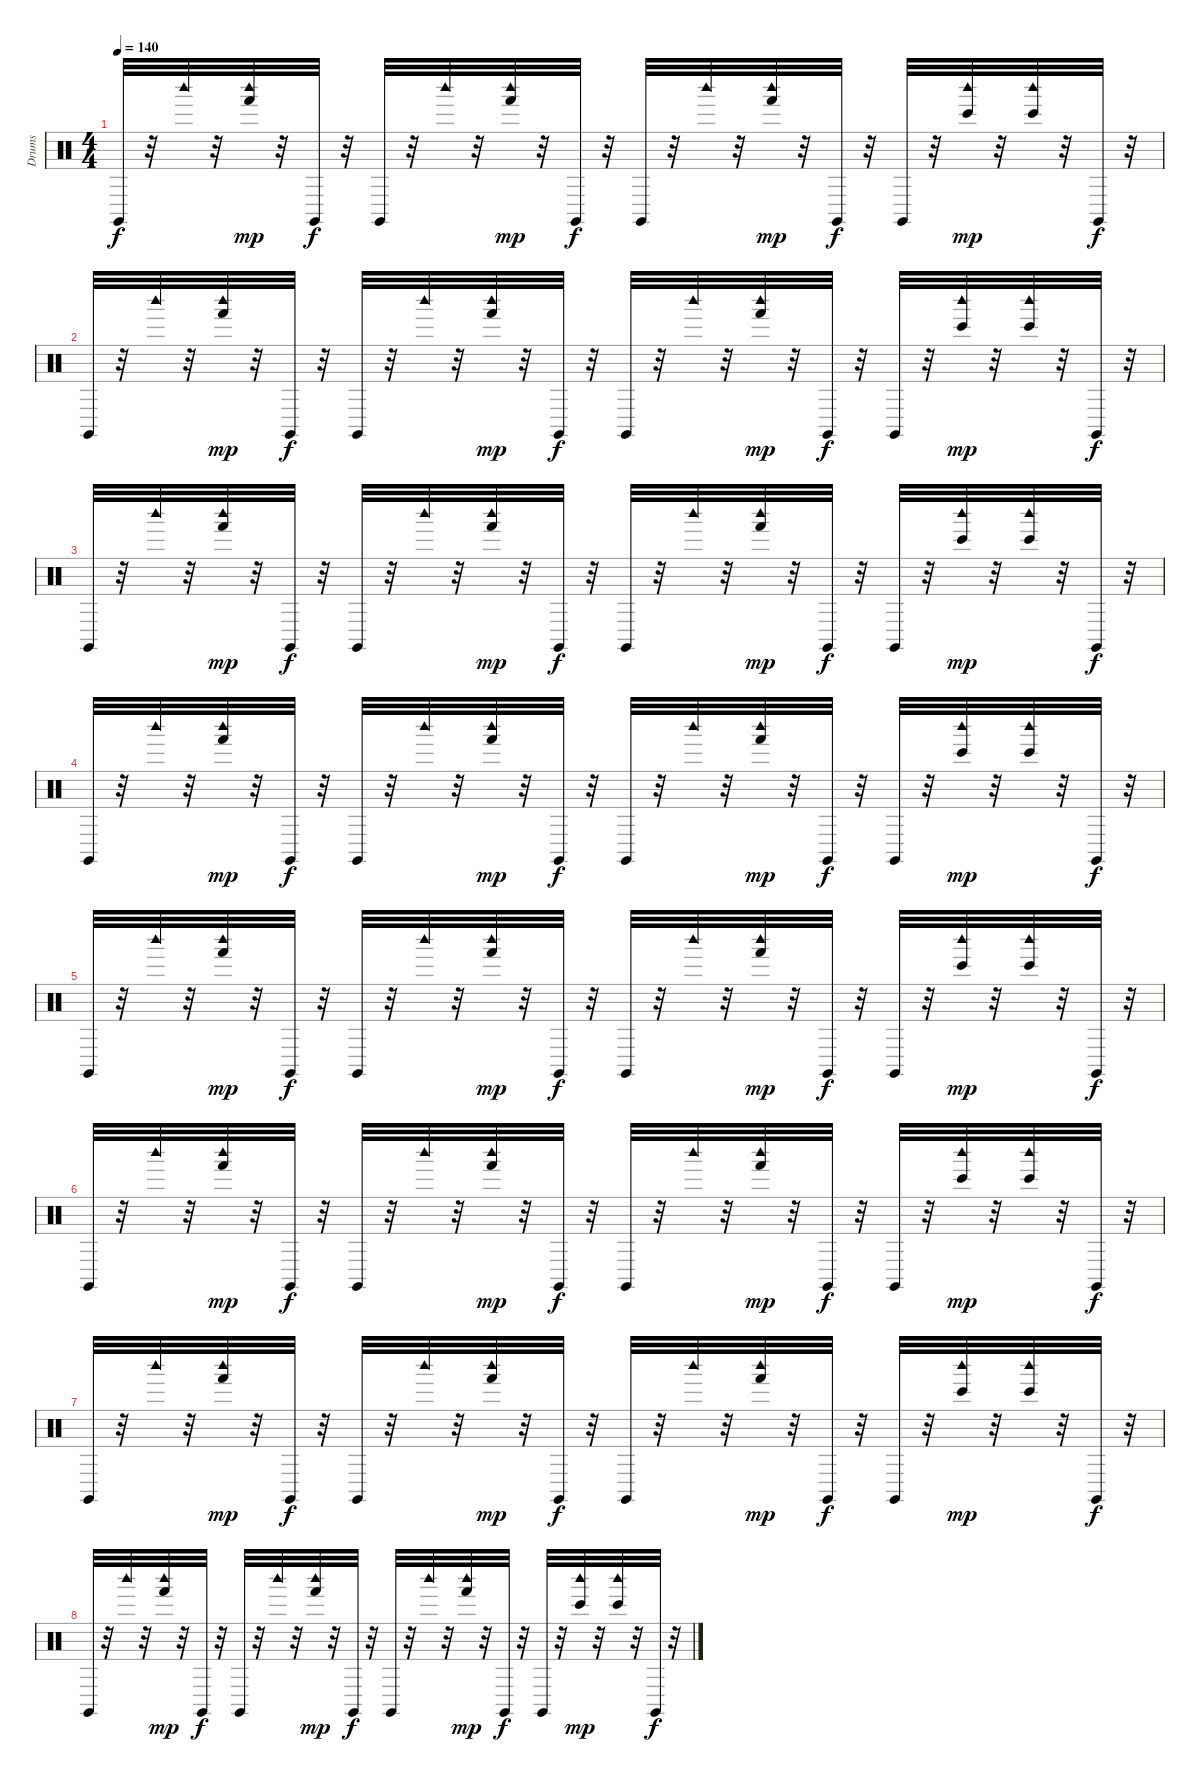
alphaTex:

\track ("Drums" "Drums") {instrument percussion}
\staff {score}
\articulation defaults
\ts (4 4)
\tempo 140
\clef neutral
\ks c "Claves (hit)".32{dy f}
r.32 "Woodblock high (hit)".32 r.32 ("Hand (hit)" "Woodblock high (hit)").32{dy mp} r.32 "Claves (hit)".32{dy f} r.32 "Claves (hit)".32 r.32 "Woodblock high (hit)".32 r.32 ("Hand (hit)" "Woodblock high (hit)").32{dy mp} r.32 "Claves (hit)".32{dy f} r.32 "Claves (hit)".32 r.32 "Woodblock high (hit)".32 r.32 ("Hand (hit)" "Woodblock high (hit)").32{dy mp} r.32 "Claves (hit)".32{dy f} r.32 "Claves (hit)".32 r.32 ("Woodblock high (hit)" "Bongo High (hit)").32{dy mp} r.32 ("Bongo High (hit)" "Woodblock high (hit)").32 r.32 "Claves (hit)".32{dy f} r.32 |
"Claves (hit)".32 r.32 "Woodblock high (hit)".32 r.32 ("Hand (hit)" "Woodblock high (hit)").32{dy mp} r.32 "Claves (hit)".32{dy f} r.32 "Claves (hit)".32 r.32 "Woodblock high (hit)".32 r.32 ("Hand (hit)" "Woodblock high (hit)").32{dy mp} r.32 "Claves (hit)".32{dy f} r.32 "Claves (hit)".32 r.32 "Woodblock high (hit)".32 r.32 ("Woodblock high (hit)" "Hand (hit)").32{dy mp} r.32 "Claves (hit)".32{dy f} r.32 "Claves (hit)".32 r.32 ("Woodblock high (hit)" "Bongo High (hit)").32{dy mp} r.32 ("Woodblock high (hit)" "Bongo High (hit)").32 r.32 "Claves (hit)".32{dy f} r.32 |
"Claves (hit)".32 r.32 "Woodblock high (hit)".32 r.32 ("Hand (hit)" "Woodblock high (hit)").32{dy mp} r.32 "Claves (hit)".32{dy f} r.32 "Claves (hit)".32 r.32 "Woodblock high (hit)".32 r.32 ("Hand (hit)" "Woodblock high (hit)").32{dy mp} r.32 "Claves (hit)".32{dy f} r.32 "Claves (hit)".32 r.32 "Woodblock high (hit)".32 r.32 ("Hand (hit)" "Woodblock high (hit)").32{dy mp} r.32 "Claves (hit)".32{dy f} r.32 "Claves (hit)".32 r.32 ("Woodblock high (hit)" "Bongo High (hit)").32{dy mp} r.32 ("Bongo High (hit)" "Woodblock high (hit)").32 r.32 "Claves (hit)".32{dy f} r.32 |
"Claves (hit)".32 r.32 "Woodblock high (hit)".32 r.32 ("Hand (hit)" "Woodblock high (hit)").32{dy mp} r.32 "Claves (hit)".32{dy f} r.32 "Claves (hit)".32 r.32 "Woodblock high (hit)".32 r.32 ("Hand (hit)" "Woodblock high (hit)").32{dy mp} r.32 "Claves (hit)".32{dy f} r.32 "Claves (hit)".32 r.32 "Woodblock high (hit)".32 r.32 ("Woodblock high (hit)" "Hand (hit)").32{dy mp} r.32 "Claves (hit)".32{dy f} r.32 "Claves (hit)".32 r.32 ("Woodblock high (hit)" "Bongo High (hit)").32{dy mp} r.32 ("Woodblock high (hit)" "Bongo High (hit)").32 r.32 "Claves (hit)".32{dy f} r.32 |
"Claves (hit)".32 r.32 "Woodblock high (hit)".32 r.32 ("Hand (hit)" "Woodblock high (hit)").32{dy mp} r.32 "Claves (hit)".32{dy f} r.32 "Claves (hit)".32 r.32 "Woodblock high (hit)".32 r.32 ("Hand (hit)" "Woodblock high (hit)").32{dy mp} r.32 "Claves (hit)".32{dy f} r.32 "Claves (hit)".32 r.32 "Woodblock high (hit)".32 r.32 ("Hand (hit)" "Woodblock high (hit)").32{dy mp} r.32 "Claves (hit)".32{dy f} r.32 "Claves (hit)".32 r.32 ("Woodblock high (hit)" "Bongo High (hit)").32{dy mp} r.32 ("Bongo High (hit)" "Woodblock high (hit)").32 r.32 "Claves (hit)".32{dy f} r.32 |
"Claves (hit)".32 r.32 "Woodblock high (hit)".32 r.32 ("Hand (hit)" "Woodblock high (hit)").32{dy mp} r.32 "Claves (hit)".32{dy f} r.32 "Claves (hit)".32 r.32 "Woodblock high (hit)".32 r.32 ("Hand (hit)" "Woodblock high (hit)").32{dy mp} r.32 "Claves (hit)".32{dy f} r.32 "Claves (hit)".32 r.32 "Woodblock high (hit)".32 r.32 ("Woodblock high (hit)" "Hand (hit)").32{dy mp} r.32 "Claves (hit)".32{dy f} r.32 "Claves (hit)".32 r.32 ("Woodblock high (hit)" "Bongo High (hit)").32{dy mp} r.32 ("Woodblock high (hit)" "Bongo High (hit)").32 r.32 "Claves (hit)".32{dy f} r.32 |
"Claves (hit)".32 r.32 "Woodblock high (hit)".32 r.32 ("Hand (hit)" "Woodblock high (hit)").32{dy mp} r.32 "Claves (hit)".32{dy f} r.32 "Claves (hit)".32 r.32 "Woodblock high (hit)".32 r.32 ("Hand (hit)" "Woodblock high (hit)").32{dy mp} r.32 "Claves (hit)".32{dy f} r.32 "Claves (hit)".32 r.32 "Woodblock high (hit)".32 r.32 ("Hand (hit)" "Woodblock high (hit)").32{dy mp} r.32 "Claves (hit)".32{dy f} r.32 "Claves (hit)".32 r.32 ("Woodblock high (hit)" "Bongo High (hit)").32{dy mp} r.32 ("Bongo High (hit)" "Woodblock high (hit)").32 r.32 "Claves (hit)".32{dy f} r.32 |
"Claves (hit)".32 r.32 "Woodblock high (hit)".32 r.32 ("Hand (hit)" "Woodblock high (hit)").32{dy mp} r.32 "Claves (hit)".32{dy f} r.32 "Claves (hit)".32 r.32 "Woodblock high (hit)".32 r.32 ("Hand (hit)" "Woodblock high (hit)").32{dy mp} r.32 "Claves (hit)".32{dy f} r.32 "Claves (hit)".32 r.32 "Woodblock high (hit)".32 r.32 ("Woodblock high (hit)" "Hand (hit)").32{dy mp} r.32 "Claves (hit)".32{dy f} r.32 "Claves (hit)".32 r.32 ("Woodblock high (hit)" "Bongo High (hit)").32{dy mp} r.32 ("Woodblock high (hit)" "Bongo High (hit)").32 r.32 "Claves (hit)".32{dy f} r.32
